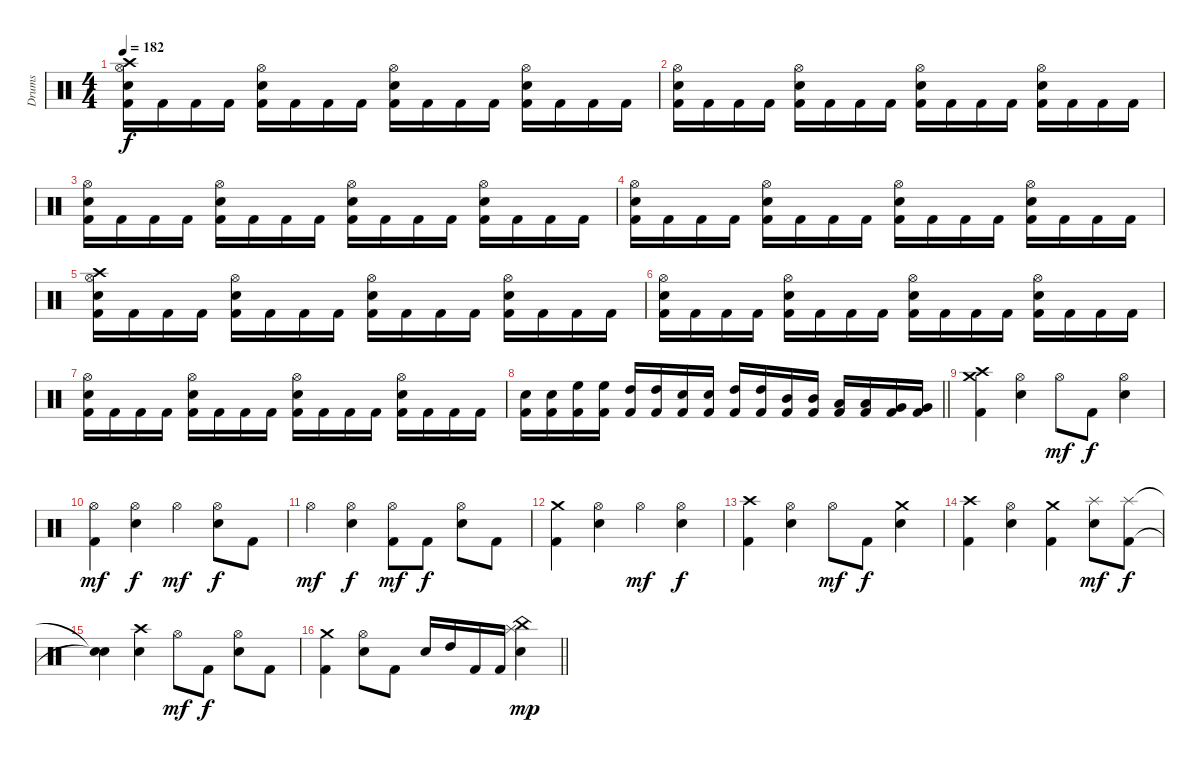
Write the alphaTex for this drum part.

\track ("Drums" "Drums") {instrument percussion}
\staff {score}
\articulation defaults
\ts (4 4)
\tempo 182
\clef neutral
\ks c
("Crash high (hit)" "Hi-Hat (open)" "Electric Snare (hit)" "Kick (hit) 2").16{dy f} "Kick (hit) 2".16 "Kick (hit) 2".16 "Kick (hit) 2".16 ("Hi-Hat (open)" "Electric Snare (hit)" "Kick (hit) 2").16 "Kick (hit) 2".16 "Kick (hit) 2".16 "Kick (hit) 2".16 ("Hi-Hat (open)" "Electric Snare (hit)" "Kick (hit) 2").16 "Kick (hit) 2".16 "Kick (hit) 2".16 "Kick (hit) 2".16 ("Hi-Hat (open)" "Electric Snare (hit)" "Kick (hit) 2").16 "Kick (hit) 2".16 "Kick (hit) 2".16 "Kick (hit) 2".16 |
("Hi-Hat (open)" "Electric Snare (hit)" "Kick (hit) 2").16 "Kick (hit) 2".16 "Kick (hit) 2".16 "Kick (hit) 2".16 ("Hi-Hat (open)" "Electric Snare (hit)" "Kick (hit) 2").16 "Kick (hit) 2".16 "Kick (hit) 2".16 "Kick (hit) 2".16 ("Hi-Hat (open)" "Electric Snare (hit)" "Kick (hit) 2").16 "Kick (hit) 2".16 "Kick (hit) 2".16 "Kick (hit) 2".16 ("Hi-Hat (open)" "Electric Snare (hit)" "Kick (hit) 2").16 "Kick (hit) 2".16 "Kick (hit) 2".16 "Kick (hit) 2".16 |
("Hi-Hat (open)" "Electric Snare (hit)" "Kick (hit) 2").16 "Kick (hit) 2".16 "Kick (hit) 2".16 "Kick (hit) 2".16 ("Hi-Hat (open)" "Electric Snare (hit)" "Kick (hit) 2").16 "Kick (hit) 2".16 "Kick (hit) 2".16 "Kick (hit) 2".16 ("Hi-Hat (open)" "Electric Snare (hit)" "Kick (hit) 2").16 "Kick (hit) 2".16 "Kick (hit) 2".16 "Kick (hit) 2".16 ("Hi-Hat (open)" "Electric Snare (hit)" "Kick (hit) 2").16 "Kick (hit) 2".16 "Kick (hit) 2".16 "Kick (hit) 2".16 |
("Hi-Hat (open)" "Electric Snare (hit)" "Kick (hit) 2").16 "Kick (hit) 2".16 "Kick (hit) 2".16 "Kick (hit) 2".16 ("Hi-Hat (open)" "Electric Snare (hit)" "Kick (hit) 2").16 "Kick (hit) 2".16 "Kick (hit) 2".16 "Kick (hit) 2".16 ("Hi-Hat (open)" "Electric Snare (hit)" "Kick (hit) 2").16 "Kick (hit) 2".16 "Kick (hit) 2".16 "Kick (hit) 2".16 ("Hi-Hat (open)" "Electric Snare (hit)" "Kick (hit) 2").16 "Kick (hit) 2".16 "Kick (hit) 2".16 "Kick (hit) 2".16 |
("Crash high (hit)" "Hi-Hat (open)" "Electric Snare (hit)" "Kick (hit) 2").16 "Kick (hit) 2".16 "Kick (hit) 2".16 "Kick (hit) 2".16 ("Hi-Hat (open)" "Electric Snare (hit)" "Kick (hit) 2").16 "Kick (hit) 2".16 "Kick (hit) 2".16 "Kick (hit) 2".16 ("Hi-Hat (open)" "Electric Snare (hit)" "Kick (hit) 2").16 "Kick (hit) 2".16 "Kick (hit) 2".16 "Kick (hit) 2".16 ("Hi-Hat (open)" "Electric Snare (hit)" "Kick (hit) 2").16 "Kick (hit) 2".16 "Kick (hit) 2".16 "Kick (hit) 2".16 |
("Hi-Hat (open)" "Electric Snare (hit)" "Kick (hit) 2").16 "Kick (hit) 2".16 "Kick (hit) 2".16 "Kick (hit) 2".16 ("Hi-Hat (open)" "Electric Snare (hit)" "Kick (hit) 2").16 "Kick (hit) 2".16 "Kick (hit) 2".16 "Kick (hit) 2".16 ("Hi-Hat (open)" "Electric Snare (hit)" "Kick (hit) 2").16 "Kick (hit) 2".16 "Kick (hit) 2".16 "Kick (hit) 2".16 ("Hi-Hat (open)" "Electric Snare (hit)" "Kick (hit) 2").16 "Kick (hit) 2".16 "Kick (hit) 2".16 "Kick (hit) 2".16 |
("Hi-Hat (open)" "Electric Snare (hit)" "Kick (hit) 2").16 "Kick (hit) 2".16 "Kick (hit) 2".16 "Kick (hit) 2".16 ("Hi-Hat (open)" "Electric Snare (hit)" "Kick (hit) 2").16 "Kick (hit) 2".16 "Kick (hit) 2".16 "Kick (hit) 2".16 ("Hi-Hat (open)" "Electric Snare (hit)" "Kick (hit) 2").16 "Kick (hit) 2".16 "Kick (hit) 2".16 "Kick (hit) 2".16 ("Hi-Hat (open)" "Electric Snare (hit)" "Kick (hit) 2").16 "Kick (hit) 2".16 "Kick (hit) 2".16 "Kick (hit) 2".16 |
\barLineRight lightlight
("Electric Snare (hit)" "Kick (hit) 2").16 ("Electric Snare (hit)" "Kick (hit) 2").16 ("High Floor Tom (hit)" "Kick (hit) 2").16 ("High Floor Tom (hit)" "Kick (hit) 2").16 ("High Tom (hit)" "Kick (hit) 2").16 ("High Tom (hit)" "Kick (hit) 2").16 ("Electric Snare (hit)" "Kick (hit) 2").16 ("Electric Snare (hit)" "Kick (hit) 2").16 ("High Tom (hit)" "Kick (hit) 2").16 ("High Tom (hit)" "Kick (hit) 2").16 ("Mid Tom (hit)" "Kick (hit) 2").16 ("Mid Tom (hit)" "Kick (hit) 2").16 ("Low Tom (hit)" "Kick (hit) 2").16 ("Low Tom (hit)" "Kick (hit) 2").16 ("Very Low Tom (hit)" "Kick (hit) 2").16 ("Very Low Tom (hit)" "Kick (hit) 2").16 |
("Crash high (hit)" "Crash medium (hit)" "Kick (hit) 2").4 ("Hi-Hat (open)" "Electric Snare (hit)").4 "Hi-Hat (open)".8{dy mf} "Kick (hit) 2".8{dy f} ("Hi-Hat (open)" "Electric Snare (hit)").4 |
("Hi-Hat (open)" "Kick (hit) 2").4{dy mf} ("Hi-Hat (open)" "Electric Snare (hit)").4{dy f} "Hi-Hat (open)".4{dy mf} ("Hi-Hat (open)" "Electric Snare (hit)").8{dy f} "Kick (hit) 2".8 |
"Hi-Hat (open)".4{dy mf} ("Hi-Hat (open)" "Electric Snare (hit)").4{dy f} ("Hi-Hat (open)" "Kick (hit) 2").8{dy mf} "Kick (hit) 2".8{dy f} ("Hi-Hat (open)" "Electric Snare (hit)").8 "Kick (hit) 2".8 |
("Crash medium (hit)" "Kick (hit) 2").4 ("Hi-Hat (open)" "Electric Snare (hit)").4 "Hi-Hat (open)".4{dy mf} ("Hi-Hat (open)" "Electric Snare (hit)").4{dy f} |
("Crash high (hit)" "Kick (hit) 2").4 ("Hi-Hat (open)" "Electric Snare (hit)").4 "Hi-Hat (open)".8{dy mf} "Kick (hit) 2".8{dy f} ("Crash medium (hit)" "Electric Snare (hit)").4 |
("Crash high (hit)" "Kick (hit) 2").4 ("Hi-Hat (open)" "Electric Snare (hit)").4 ("Crash medium (hit)" "Kick (hit) 2").4 ("Splash (hit)" "Electric Snare (hit)").8{dy mf} ("Splash (hit)" "Kick (hit) 2").8{dy f} |
("Snare (hit)"{t} "Snare (hit)"{t}).4 ("Crash high (hit)" "Electric Snare (hit)").4 "Hi-Hat (open)".8{dy mf} "Kick (hit) 2".8{dy f} ("Hi-Hat (open)" "Electric Snare (hit)").8 "Kick (hit) 2".8 |
\barLineRight lightlight
("Crash medium (hit)" "Kick (hit) 2").4 ("Hi-Hat (open)" "Electric Snare (hit)").8 "Kick (hit) 2".8 "Electric Snare (hit)".16 "High Tom (hit)".16 "Kick (hit) 2".16 "Kick (hit) 2".16 ("China (hit)" "Splash (hit)" "Electric Snare (hit)").4{dy mp}
